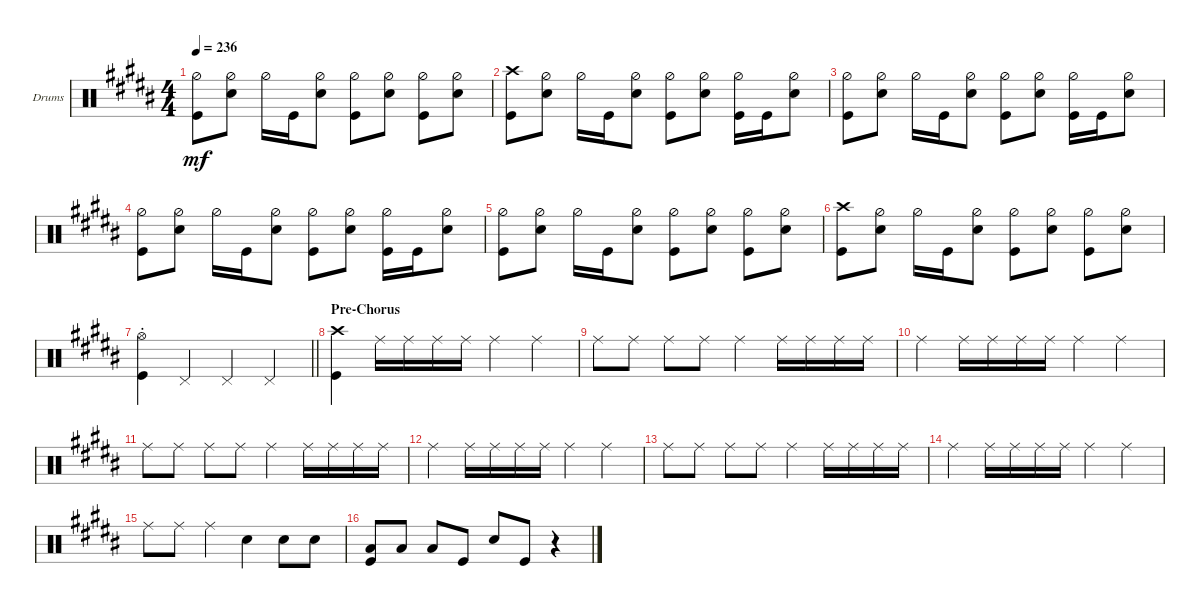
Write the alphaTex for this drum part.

\defaultSystemsLayout 4
\bracketExtendMode groupsimilarinstruments
\firstSystemTrackNameOrientation horizontal
\otherSystemsTrackNameOrientation horizontal
\track ("Drums" "Drums") {instrument percussion}
\staff {score}
\articulation defaults
\ts (4 4)
\tempo 236
\clef neutral
\ks b
("Hi-Hat (half)" "Kick (hit)").8{dy mf} ("Hi-Hat (half)" "Snare (hit) 2").8 "Hi-Hat (half)".16 "Kick (hit)".16 ("Hi-Hat (half)" "Snare (hit) 2").8 ("Hi-Hat (half)" "Kick (hit)").8 ("Hi-Hat (half)" "Snare (hit) 2").8 ("Hi-Hat (half)" "Kick (hit)").8 ("Hi-Hat (half)" "Snare (hit) 2").8 |
("Kick (hit)" "Crash high (hit)").8 ("Hi-Hat (half)" "Snare (hit) 2").8 "Hi-Hat (half)".16 "Kick (hit)".16 ("Hi-Hat (half)" "Snare (hit) 2").8 ("Hi-Hat (half)" "Kick (hit)").8 ("Hi-Hat (half)" "Snare (hit) 2").8 ("Hi-Hat (half)" "Kick (hit)").16 "Kick (hit)".16 ("Hi-Hat (half)" "Snare (hit) 2").8 |
("Hi-Hat (half)" "Kick (hit)").8 ("Hi-Hat (half)" "Snare (hit) 2").8 "Hi-Hat (half)".16 "Kick (hit)".16 ("Hi-Hat (half)" "Snare (hit) 2").8 ("Hi-Hat (half)" "Kick (hit)").8 ("Hi-Hat (half)" "Snare (hit) 2").8 ("Hi-Hat (half)" "Kick (hit)").16 "Kick (hit)".16 ("Hi-Hat (half)" "Snare (hit) 2").8 |
("Hi-Hat (half)" "Kick (hit)").8 ("Hi-Hat (half)" "Snare (hit) 2").8 "Hi-Hat (half)".16 "Kick (hit)".16 ("Hi-Hat (half)" "Snare (hit) 2").8 ("Hi-Hat (half)" "Kick (hit)").8 ("Hi-Hat (half)" "Snare (hit) 2").8 ("Hi-Hat (half)" "Kick (hit)").16 "Kick (hit)".16 ("Hi-Hat (half)" "Snare (hit) 2").8 |
("Hi-Hat (half)" "Kick (hit)").8 ("Hi-Hat (half)" "Snare (hit) 2").8 "Hi-Hat (half)".16 "Kick (hit)".16 ("Hi-Hat (half)" "Snare (hit) 2").8 ("Hi-Hat (half)" "Kick (hit)").8 ("Hi-Hat (half)" "Snare (hit) 2").8 ("Hi-Hat (half)" "Kick (hit)").8 ("Hi-Hat (half)" "Snare (hit) 2").8 |
("Kick (hit)" "Crash high (hit)").8 ("Hi-Hat (half)" "Snare (hit) 2").8 "Hi-Hat (half)".16 "Kick (hit)".16 ("Hi-Hat (half)" "Snare (hit) 2").8 ("Hi-Hat (half)" "Kick (hit)").8 ("Hi-Hat (half)" "Snare (hit) 2").8 ("Hi-Hat (half)" "Kick (hit)").8 ("Hi-Hat (half)" "Snare (hit) 2").8 |
\barLineRight lightlight
("Kick (hit)"{st} "Hi-Hat (open)"{st}).4 "Pedal Hi-Hat (hit)".4 "Pedal Hi-Hat (hit)".4 "Pedal Hi-Hat (hit)".4 |
\section ("" "Pre-Chorus")
("Kick (hit)" "Crash high (hit)").4 "Ride (middle)".16 "Ride (middle)".16 "Ride (middle)".16 "Ride (middle)".16 "Ride (middle)".4 "Ride (middle)".4 |
"Ride (middle)".8 "Ride (middle)".8 "Ride (middle)".8 "Ride (middle)".8 "Ride (middle)".4 "Ride (middle)".16 "Ride (middle)".16 "Ride (middle)".16 "Ride (middle)".16 |
"Ride (middle)".4 "Ride (middle)".16 "Ride (middle)".16 "Ride (middle)".16 "Ride (middle)".16 "Ride (middle)".4 "Ride (middle)".4 |
"Ride (middle)".8 "Ride (middle)".8 "Ride (middle)".8 "Ride (middle)".8 "Ride (middle)".4 "Ride (middle)".16 "Ride (middle)".16 "Ride (middle)".16 "Ride (middle)".16 |
"Ride (middle)".4 "Ride (middle)".16 "Ride (middle)".16 "Ride (middle)".16 "Ride (middle)".16 "Ride (middle)".4 "Ride (middle)".4 |
"Ride (middle)".8 "Ride (middle)".8 "Ride (middle)".8 "Ride (middle)".8 "Ride (middle)".4 "Ride (middle)".16 "Ride (middle)".16 "Ride (middle)".16 "Ride (middle)".16 |
"Ride (middle)".4 "Ride (middle)".16 "Ride (middle)".16 "Ride (middle)".16 "Ride (middle)".16 "Ride (middle)".4 "Ride (middle)".4 |
"Ride (middle)".8 "Ride (middle)".8 "Ride (middle)".4 "Snare (hit) 2".4 "Snare (hit) 2".8 "Snare (hit) 2".8 |
("Kick (hit)" "Low Tom (hit)").8 "Low Tom (hit)".8 "Low Tom (hit)".8 "Kick (hit)".8 "Snare (hit) 2".8 "Kick (hit)".8 r.4
